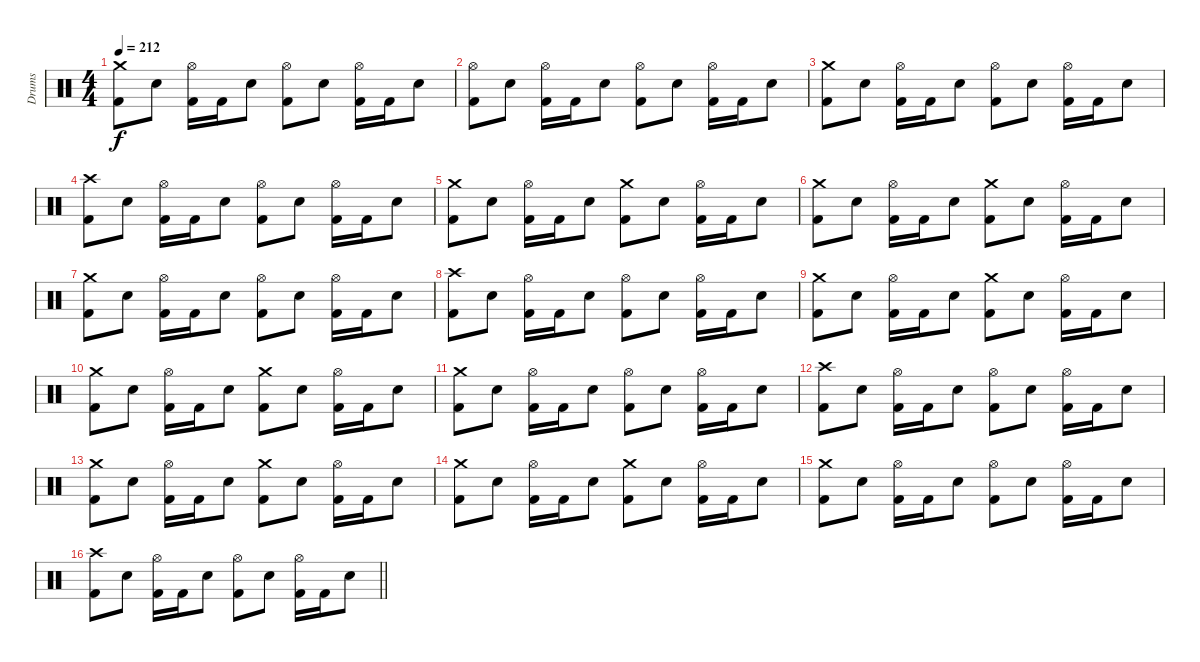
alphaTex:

\track ("Drums" "Drums") {instrument percussion}
\staff {score}
\articulation defaults
\ts (4 4)
\tempo 212
\clef neutral
\ks c
("Crash medium (hit)" "Kick (hit) 2").8{dy f} "Electric Snare (hit)".8 ("Hi-Hat (open)" "Kick (hit) 2").16 "Kick (hit) 2".16 "Electric Snare (hit)".8 ("Hi-Hat (open)" "Kick (hit) 2").8 "Electric Snare (hit)".8 ("Hi-Hat (open)" "Kick (hit) 2").16 "Kick (hit) 2".16 "Electric Snare (hit)".8 |
("Hi-Hat (open)" "Kick (hit) 2").8 "Electric Snare (hit)".8 ("Hi-Hat (open)" "Kick (hit) 2").16 "Kick (hit) 2".16 "Electric Snare (hit)".8 ("Hi-Hat (open)" "Kick (hit) 2").8 "Electric Snare (hit)".8 ("Hi-Hat (open)" "Kick (hit) 2").16 "Kick (hit) 2".16 "Electric Snare (hit)".8 |
("Crash medium (hit)" "Kick (hit) 2").8 "Electric Snare (hit)".8 ("Hi-Hat (open)" "Kick (hit) 2").16 "Kick (hit) 2".16 "Electric Snare (hit)".8 ("Hi-Hat (open)" "Kick (hit) 2").8 "Electric Snare (hit)".8 ("Hi-Hat (open)" "Kick (hit) 2").16 "Kick (hit) 2".16 "Electric Snare (hit)".8 |
("Crash high (hit)" "Kick (hit) 2").8 "Electric Snare (hit)".8 ("Hi-Hat (open)" "Kick (hit) 2").16 "Kick (hit) 2".16 "Electric Snare (hit)".8 ("Hi-Hat (open)" "Kick (hit) 2").8 "Electric Snare (hit)".8 ("Hi-Hat (open)" "Kick (hit) 2").16 "Kick (hit) 2".16 "Electric Snare (hit)".8 |
("Crash medium (hit)" "Kick (hit) 2").8 "Electric Snare (hit)".8 ("Hi-Hat (open)" "Kick (hit) 2").16 "Kick (hit) 2".16 "Electric Snare (hit)".8 ("Crash medium (hit)" "Kick (hit) 2").8 "Electric Snare (hit)".8 ("Hi-Hat (open)" "Kick (hit) 2").16 "Kick (hit) 2".16 "Electric Snare (hit)".8 |
("Crash medium (hit)" "Kick (hit) 2").8 "Electric Snare (hit)".8 ("Hi-Hat (open)" "Kick (hit) 2").16 "Kick (hit) 2".16 "Electric Snare (hit)".8 ("Crash medium (hit)" "Kick (hit) 2").8 "Electric Snare (hit)".8 ("Hi-Hat (open)" "Kick (hit) 2").16 "Kick (hit) 2".16 "Electric Snare (hit)".8 |
("Crash medium (hit)" "Kick (hit) 2").8 "Electric Snare (hit)".8 ("Hi-Hat (open)" "Kick (hit) 2").16 "Kick (hit) 2".16 "Electric Snare (hit)".8 ("Hi-Hat (open)" "Kick (hit) 2").8 "Electric Snare (hit)".8 ("Hi-Hat (open)" "Kick (hit) 2").16 "Kick (hit) 2".16 "Electric Snare (hit)".8 |
("Crash high (hit)" "Kick (hit) 2").8 "Electric Snare (hit)".8 ("Hi-Hat (open)" "Kick (hit) 2").16 "Kick (hit) 2".16 "Electric Snare (hit)".8 ("Hi-Hat (open)" "Kick (hit) 2").8 "Electric Snare (hit)".8 ("Hi-Hat (open)" "Kick (hit) 2").16 "Kick (hit) 2".16 "Electric Snare (hit)".8 |
("Crash medium (hit)" "Kick (hit) 2").8 "Electric Snare (hit)".8 ("Hi-Hat (open)" "Kick (hit) 2").16 "Kick (hit) 2".16 "Electric Snare (hit)".8 ("Crash medium (hit)" "Kick (hit) 2").8 "Electric Snare (hit)".8 ("Hi-Hat (open)" "Kick (hit) 2").16 "Kick (hit) 2".16 "Electric Snare (hit)".8 |
("Crash medium (hit)" "Kick (hit) 2").8 "Electric Snare (hit)".8 ("Hi-Hat (open)" "Kick (hit) 2").16 "Kick (hit) 2".16 "Electric Snare (hit)".8 ("Crash medium (hit)" "Kick (hit) 2").8 "Electric Snare (hit)".8 ("Hi-Hat (open)" "Kick (hit) 2").16 "Kick (hit) 2".16 "Electric Snare (hit)".8 |
("Crash medium (hit)" "Kick (hit) 2").8 "Electric Snare (hit)".8 ("Hi-Hat (open)" "Kick (hit) 2").16 "Kick (hit) 2".16 "Electric Snare (hit)".8 ("Hi-Hat (open)" "Kick (hit) 2").8 "Electric Snare (hit)".8 ("Hi-Hat (open)" "Kick (hit) 2").16 "Kick (hit) 2".16 "Electric Snare (hit)".8 |
("Crash high (hit)" "Kick (hit) 2").8 "Electric Snare (hit)".8 ("Hi-Hat (open)" "Kick (hit) 2").16 "Kick (hit) 2".16 "Electric Snare (hit)".8 ("Hi-Hat (open)" "Kick (hit) 2").8 "Electric Snare (hit)".8 ("Hi-Hat (open)" "Kick (hit) 2").16 "Kick (hit) 2".16 "Electric Snare (hit)".8 |
("Crash medium (hit)" "Kick (hit) 2").8 "Electric Snare (hit)".8 ("Hi-Hat (open)" "Kick (hit) 2").16 "Kick (hit) 2".16 "Electric Snare (hit)".8 ("Crash medium (hit)" "Kick (hit) 2").8 "Electric Snare (hit)".8 ("Hi-Hat (open)" "Kick (hit) 2").16 "Kick (hit) 2".16 "Electric Snare (hit)".8 |
("Crash medium (hit)" "Kick (hit) 2").8 "Electric Snare (hit)".8 ("Hi-Hat (open)" "Kick (hit) 2").16 "Kick (hit) 2".16 "Electric Snare (hit)".8 ("Crash medium (hit)" "Kick (hit) 2").8 "Electric Snare (hit)".8 ("Hi-Hat (open)" "Kick (hit) 2").16 "Kick (hit) 2".16 "Electric Snare (hit)".8 |
("Crash medium (hit)" "Kick (hit) 2").8 "Electric Snare (hit)".8 ("Hi-Hat (open)" "Kick (hit) 2").16 "Kick (hit) 2".16 "Electric Snare (hit)".8 ("Hi-Hat (open)" "Kick (hit) 2").8 "Electric Snare (hit)".8 ("Hi-Hat (open)" "Kick (hit) 2").16 "Kick (hit) 2".16 "Electric Snare (hit)".8 |
\barLineRight lightlight
("Crash high (hit)" "Kick (hit) 2").8 "Electric Snare (hit)".8 ("Hi-Hat (open)" "Kick (hit) 2").16 "Kick (hit) 2".16 "Electric Snare (hit)".8 ("Hi-Hat (open)" "Kick (hit) 2").8 "Electric Snare (hit)".8 ("Hi-Hat (open)" "Kick (hit) 2").16 "Kick (hit) 2".16 "Electric Snare (hit)".8
